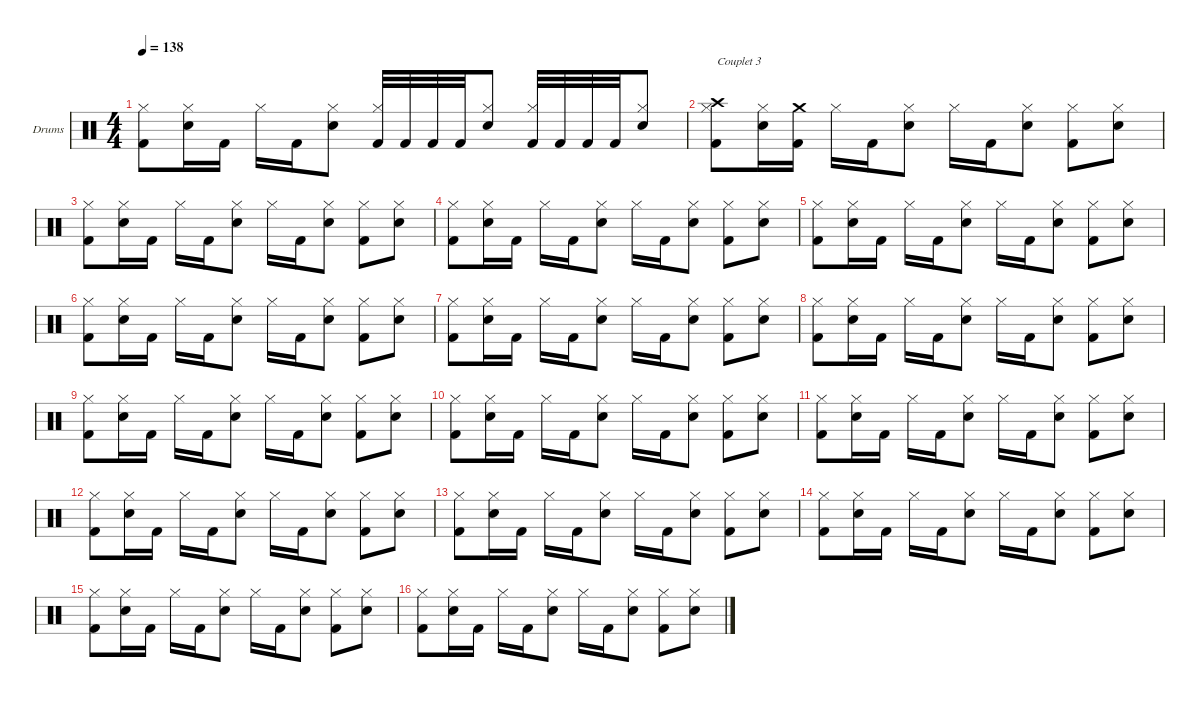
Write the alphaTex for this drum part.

\hideDynamics
\bracketExtendMode nobrackets
\firstSystemTrackNameOrientation horizontal
\otherSystemsTrackNameOrientation horizontal
\track ("Drumkit" "Drums") {instrument percussion}
\staff {score}
\articulation defaults
\ts (4 4)
\tempo 138
\clef neutral
\ks c
("Hi-Hat (closed)" "Kick (hit) 2").8{dy f beam Down} ("Snare (hit) 2" "Hi-Hat (closed)").16{beam Down} "Kick (hit) 2".16{beam Down} "Hi-Hat (closed)".16{beam Down} "Kick (hit) 2".16{beam Down} ("Snare (hit) 2" "Hi-Hat (closed)").8{beam Down} ("Hi-Hat (closed)" "Kick (hit) 2").32{beam Up} "Kick (hit) 2".32{beam Up} "Kick (hit) 2".32{beam Up} "Kick (hit) 2".32{beam Up} ("Snare (hit) 2" "Hi-Hat (closed)").8{beam Up} ("Hi-Hat (closed)" "Kick (hit) 2").32{beam Up} "Kick (hit) 2".32{beam Up} "Kick (hit) 2".32{beam Up} "Kick (hit) 2".32{beam Up} ("Snare (hit) 2" "Hi-Hat (closed)").8{beam Up} |
("Crash high (hit)" "Hi-Hat (closed)" "Kick (hit) 2").8{txt "Couplet 3" beam Down} ("Snare (hit) 2" "Hi-Hat (closed)").16{beam Down} ("Crash medium (hit)" "Kick (hit) 2").16{beam Down} "Hi-Hat (closed)".16{beam Down} "Kick (hit) 2".16{beam Down} ("Snare (hit) 2" "Hi-Hat (closed)").8{beam Down} "Hi-Hat (closed)".16{beam Down} "Kick (hit) 2".16{beam Down} ("Snare (hit) 2" "Hi-Hat (closed)").8{beam Down} ("Hi-Hat (closed)" "Kick (hit) 2").8{beam Down} ("Snare (hit) 2" "Hi-Hat (closed)").8{beam Down} |
("Hi-Hat (closed)" "Kick (hit) 2").8{beam Down} ("Snare (hit) 2" "Hi-Hat (closed)").16{beam Down} "Kick (hit) 2".16{beam Down} "Hi-Hat (closed)".16{beam Down} "Kick (hit) 2".16{beam Down} ("Snare (hit) 2" "Hi-Hat (closed)").8{beam Down} "Hi-Hat (closed)".16{beam Down} "Kick (hit) 2".16{beam Down} ("Snare (hit) 2" "Hi-Hat (closed)").8{beam Down} ("Hi-Hat (closed)" "Kick (hit) 2").8{beam Down} ("Snare (hit) 2" "Hi-Hat (closed)").8{beam Down} |
("Hi-Hat (closed)" "Kick (hit) 2").8{beam Down} ("Snare (hit) 2" "Hi-Hat (closed)").16{beam Down} "Kick (hit) 2".16{beam Down} "Hi-Hat (closed)".16{beam Down} "Kick (hit) 2".16{beam Down} ("Snare (hit) 2" "Hi-Hat (closed)").8{beam Down} "Hi-Hat (closed)".16{beam Down} "Kick (hit) 2".16{beam Down} ("Snare (hit) 2" "Hi-Hat (closed)").8{beam Down} ("Hi-Hat (closed)" "Kick (hit) 2").8{beam Down} ("Snare (hit) 2" "Hi-Hat (closed)").8{beam Down} |
("Hi-Hat (closed)" "Kick (hit) 2").8{beam Down} ("Snare (hit) 2" "Hi-Hat (closed)").16{beam Down} "Kick (hit) 2".16{beam Down} "Hi-Hat (closed)".16{beam Down} "Kick (hit) 2".16{beam Down} ("Snare (hit) 2" "Hi-Hat (closed)").8{beam Down} "Hi-Hat (closed)".16{beam Down} "Kick (hit) 2".16{beam Down} ("Snare (hit) 2" "Hi-Hat (closed)").8{beam Down} ("Hi-Hat (closed)" "Kick (hit) 2").8{beam Down} ("Snare (hit) 2" "Hi-Hat (closed)").8{beam Down} |
("Hi-Hat (closed)" "Kick (hit) 2").8{beam Down} ("Snare (hit) 2" "Hi-Hat (closed)").16{beam Down} "Kick (hit) 2".16{beam Down} "Hi-Hat (closed)".16{beam Down} "Kick (hit) 2".16{beam Down} ("Snare (hit) 2" "Hi-Hat (closed)").8{beam Down} "Hi-Hat (closed)".16{beam Down} "Kick (hit) 2".16{beam Down} ("Snare (hit) 2" "Hi-Hat (closed)").8{beam Down} ("Hi-Hat (closed)" "Kick (hit) 2").8{beam Down} ("Snare (hit) 2" "Hi-Hat (closed)").8{beam Down} |
("Hi-Hat (closed)" "Kick (hit) 2").8{beam Down} ("Snare (hit) 2" "Hi-Hat (closed)").16{beam Down} "Kick (hit) 2".16{beam Down} "Hi-Hat (closed)".16{beam Down} "Kick (hit) 2".16{beam Down} ("Snare (hit) 2" "Hi-Hat (closed)").8{beam Down} "Hi-Hat (closed)".16{beam Down} "Kick (hit) 2".16{beam Down} ("Snare (hit) 2" "Hi-Hat (closed)").8{beam Down} ("Hi-Hat (closed)" "Kick (hit) 2").8{beam Down} ("Snare (hit) 2" "Hi-Hat (closed)").8{beam Down} |
("Hi-Hat (closed)" "Kick (hit) 2").8{beam Down} ("Snare (hit) 2" "Hi-Hat (closed)").16{beam Down} "Kick (hit) 2".16{beam Down} "Hi-Hat (closed)".16{beam Down} "Kick (hit) 2".16{beam Down} ("Snare (hit) 2" "Hi-Hat (closed)").8{beam Down} "Hi-Hat (closed)".16{beam Down} "Kick (hit) 2".16{beam Down} ("Snare (hit) 2" "Hi-Hat (closed)").8{beam Down} ("Hi-Hat (closed)" "Kick (hit) 2").8{beam Down} ("Snare (hit) 2" "Hi-Hat (closed)").8{beam Down} |
("Hi-Hat (closed)" "Kick (hit) 2").8{beam Down} ("Snare (hit) 2" "Hi-Hat (closed)").16{beam Down} "Kick (hit) 2".16{beam Down} "Hi-Hat (closed)".16{beam Down} "Kick (hit) 2".16{beam Down} ("Snare (hit) 2" "Hi-Hat (closed)").8{beam Down} "Hi-Hat (closed)".16{beam Down} "Kick (hit) 2".16{beam Down} ("Snare (hit) 2" "Hi-Hat (closed)").8{beam Down} ("Hi-Hat (closed)" "Kick (hit) 2").8{beam Down} ("Snare (hit) 2" "Hi-Hat (closed)").8{beam Down} |
("Hi-Hat (closed)" "Kick (hit) 2").8{beam Down} ("Snare (hit) 2" "Hi-Hat (closed)").16{beam Down} "Kick (hit) 2".16{beam Down} "Hi-Hat (closed)".16{beam Down} "Kick (hit) 2".16{beam Down} ("Snare (hit) 2" "Hi-Hat (closed)").8{beam Down} "Hi-Hat (closed)".16{beam Down} "Kick (hit) 2".16{beam Down} ("Snare (hit) 2" "Hi-Hat (closed)").8{beam Down} ("Hi-Hat (closed)" "Kick (hit) 2").8{beam Down} ("Snare (hit) 2" "Hi-Hat (closed)").8{beam Down} |
("Hi-Hat (closed)" "Kick (hit) 2").8{beam Down} ("Snare (hit) 2" "Hi-Hat (closed)").16{beam Down} "Kick (hit) 2".16{beam Down} "Hi-Hat (closed)".16{beam Down} "Kick (hit) 2".16{beam Down} ("Snare (hit) 2" "Hi-Hat (closed)").8{beam Down} "Hi-Hat (closed)".16{beam Down} "Kick (hit) 2".16{beam Down} ("Snare (hit) 2" "Hi-Hat (closed)").8{beam Down} ("Hi-Hat (closed)" "Kick (hit) 2").8{beam Down} ("Snare (hit) 2" "Hi-Hat (closed)").8{beam Down} |
("Hi-Hat (closed)" "Kick (hit) 2").8{beam Down} ("Snare (hit) 2" "Hi-Hat (closed)").16{beam Down} "Kick (hit) 2".16{beam Down} "Hi-Hat (closed)".16{beam Down} "Kick (hit) 2".16{beam Down} ("Snare (hit) 2" "Hi-Hat (closed)").8{beam Down} "Hi-Hat (closed)".16{beam Down} "Kick (hit) 2".16{beam Down} ("Snare (hit) 2" "Hi-Hat (closed)").8{beam Down} ("Hi-Hat (closed)" "Kick (hit) 2").8{beam Down} ("Snare (hit) 2" "Hi-Hat (closed)").8{beam Down} |
("Hi-Hat (closed)" "Kick (hit) 2").8{beam Down} ("Snare (hit) 2" "Hi-Hat (closed)").16{beam Down} "Kick (hit) 2".16{beam Down} "Hi-Hat (closed)".16{beam Down} "Kick (hit) 2".16{beam Down} ("Snare (hit) 2" "Hi-Hat (closed)").8{beam Down} "Hi-Hat (closed)".16{beam Down} "Kick (hit) 2".16{beam Down} ("Snare (hit) 2" "Hi-Hat (closed)").8{beam Down} ("Hi-Hat (closed)" "Kick (hit) 2").8{beam Down} ("Snare (hit) 2" "Hi-Hat (closed)").8{beam Down} |
("Hi-Hat (closed)" "Kick (hit) 2").8{beam Down} ("Snare (hit) 2" "Hi-Hat (closed)").16{beam Down} "Kick (hit) 2".16{beam Down} "Hi-Hat (closed)".16{beam Down} "Kick (hit) 2".16{beam Down} ("Snare (hit) 2" "Hi-Hat (closed)").8{beam Down} "Hi-Hat (closed)".16{beam Down} "Kick (hit) 2".16{beam Down} ("Snare (hit) 2" "Hi-Hat (closed)").8{beam Down} ("Hi-Hat (closed)" "Kick (hit) 2").8{beam Down} ("Snare (hit) 2" "Hi-Hat (closed)").8{beam Down} |
("Hi-Hat (closed)" "Kick (hit) 2").8{beam Down} ("Snare (hit) 2" "Hi-Hat (closed)").16{beam Down} "Kick (hit) 2".16{beam Down} "Hi-Hat (closed)".16{beam Down} "Kick (hit) 2".16{beam Down} ("Snare (hit) 2" "Hi-Hat (closed)").8{beam Down} "Hi-Hat (closed)".16{beam Down} "Kick (hit) 2".16{beam Down} ("Snare (hit) 2" "Hi-Hat (closed)").8{beam Down} ("Hi-Hat (closed)" "Kick (hit) 2").8{beam Down} ("Snare (hit) 2" "Hi-Hat (closed)").8{beam Down} |
("Hi-Hat (closed)" "Kick (hit) 2").8{beam Down} ("Snare (hit) 2" "Hi-Hat (closed)").16{beam Down} "Kick (hit) 2".16{beam Down} "Hi-Hat (closed)".16{beam Down} "Kick (hit) 2".16{beam Down} ("Snare (hit) 2" "Hi-Hat (closed)").8{beam Down} "Hi-Hat (closed)".16{beam Down} "Kick (hit) 2".16{beam Down} ("Snare (hit) 2" "Hi-Hat (closed)").8{beam Down} ("Hi-Hat (closed)" "Kick (hit) 2").8{beam Down} ("Snare (hit) 2" "Hi-Hat (closed)").8{beam Down}
